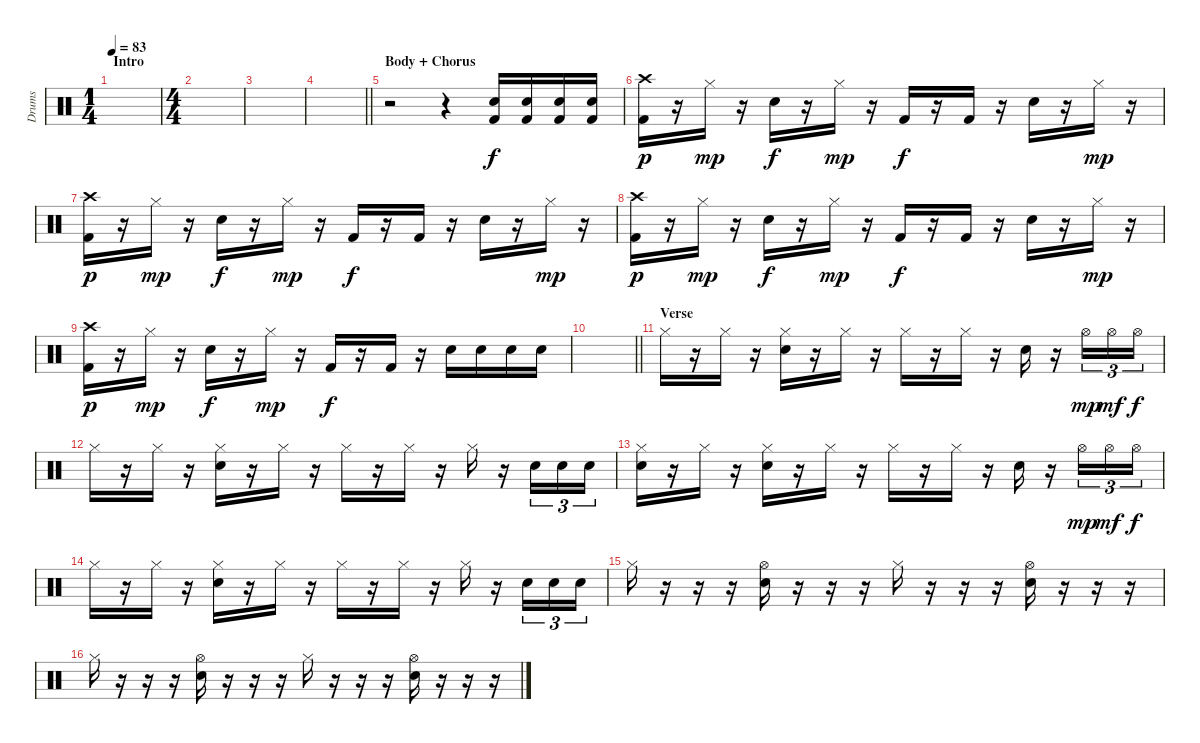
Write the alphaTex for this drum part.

\track ("Drums" "Drums") {instrument percussion}
\staff {score}
\articulation defaults
\ts (1 4)
\section ("" "Intro")
\tempo 83
\clef neutral
\ks c
|
\ts (4 4)
|
|
\barLineRight lightlight
|
\section ("" "Body + Chorus")
r.2 r.4 ("Snare (hit) 2" "Kick (hit) 2").16 ("Snare (hit) 2" "Kick (hit) 2").16 ("Snare (hit) 2" "Kick (hit) 2").16 ("Snare (hit) 2" "Kick (hit) 2").16 |
("Crash high (hit)" "Kick (hit) 2").16{dy p} r.16 "Hi-Hat (closed)".16{dy mp} r.16 "Snare (hit) 2".16{dy f} r.16 "Hi-Hat (closed)".16{dy mp} r.16 "Kick (hit) 2".16{dy f} r.16 "Kick (hit) 2".16 r.16 "Snare (hit) 2".16 r.16 "Hi-Hat (closed)".16{dy mp} r.16 |
("Crash high (hit)" "Kick (hit) 2").16{dy p} r.16 "Hi-Hat (closed)".16{dy mp} r.16 "Snare (hit) 2".16{dy f} r.16 "Hi-Hat (closed)".16{dy mp} r.16 "Kick (hit) 2".16{dy f} r.16 "Kick (hit) 2".16 r.16 "Snare (hit) 2".16 r.16 "Hi-Hat (closed)".16{dy mp} r.16 |
("Crash high (hit)" "Kick (hit) 2").16{dy p} r.16 "Hi-Hat (closed)".16{dy mp} r.16 "Snare (hit) 2".16{dy f} r.16 "Hi-Hat (closed)".16{dy mp} r.16 "Kick (hit) 2".16{dy f} r.16 "Kick (hit) 2".16 r.16 "Snare (hit) 2".16 r.16 "Hi-Hat (closed)".16{dy mp} r.16 |
("Crash high (hit)" "Kick (hit) 2").16{dy p} r.16 "Hi-Hat (closed)".16{dy mp} r.16 "Snare (hit) 2".16{dy f} r.16 "Hi-Hat (closed)".16{dy mp} r.16 "Kick (hit) 2".16{dy f} r.16 "Kick (hit) 2".16 r.16 "Snare (hit) 2".16 "Snare (hit) 2".16 "Snare (hit) 2".16 "Snare (hit) 2".16 |
\barLineRight lightlight
|
\section ("" "Verse")
"Hi-Hat (closed)".16 r.16 "Hi-Hat (closed)".16 r.16 ("Hi-Hat (closed)" "Snare (hit) 2").16 r.16 "Hi-Hat (closed)".16 r.16 "Hi-Hat (closed)".16 r.16 "Hi-Hat (closed)".16 r.16 "Snare (hit) 2".16 r.16 "Hi-Hat (open)".16{tu (3 2) dy mp} "Hi-Hat (open)".16{tu (3 2) dy mf} "Hi-Hat (open)".16{tu (3 2) dy f} |
"Hi-Hat (closed)".16 r.16 "Hi-Hat (closed)".16 r.16 ("Hi-Hat (closed)" "Snare (hit) 2").16 r.16 "Hi-Hat (closed)".16 r.16 "Hi-Hat (closed)".16 r.16 "Hi-Hat (closed)".16 r.16 "Hi-Hat (closed)".16 r.16 "Snare (hit) 2".16{tu (3 2)} "Snare (hit) 2".16{tu (3 2)} "Snare (hit) 2".16{tu (3 2)} |
("Hi-Hat (closed)" "Snare (hit) 2").16 r.16 "Hi-Hat (closed)".16 r.16 ("Hi-Hat (closed)" "Snare (hit) 2").16 r.16 "Hi-Hat (closed)".16 r.16 "Hi-Hat (closed)".16 r.16 "Hi-Hat (closed)".16 r.16 "Snare (hit) 2".16 r.16 "Hi-Hat (open)".16{tu (3 2) dy mp} "Hi-Hat (open)".16{tu (3 2) dy mf} "Hi-Hat (open)".16{tu (3 2) dy f} |
"Hi-Hat (closed)".16 r.16 "Hi-Hat (closed)".16 r.16 ("Hi-Hat (closed)" "Snare (hit) 2").16 r.16 "Hi-Hat (closed)".16 r.16 "Hi-Hat (closed)".16 r.16 "Hi-Hat (closed)".16 r.16 "Hi-Hat (closed)".16 r.16 "Snare (hit) 2".16{tu (3 2)} "Snare (hit) 2".16{tu (3 2)} "Snare (hit) 2".16{tu (3 2)} |
"Hi-Hat (closed)".16 r.16 r.16 r.16 ("Hi-Hat (open)" "Snare (hit) 2").16 r.16 r.16 r.16 "Hi-Hat (closed)".16 r.16 r.16 r.16 ("Hi-Hat (open)" "Snare (hit) 2").16 r.16 r.16 r.16 |
"Hi-Hat (closed)".16 r.16 r.16 r.16 ("Hi-Hat (open)" "Snare (hit) 2").16 r.16 r.16 r.16 "Hi-Hat (closed)".16 r.16 r.16 r.16 ("Hi-Hat (open)" "Snare (hit) 2").16 r.16 r.16 r.16
